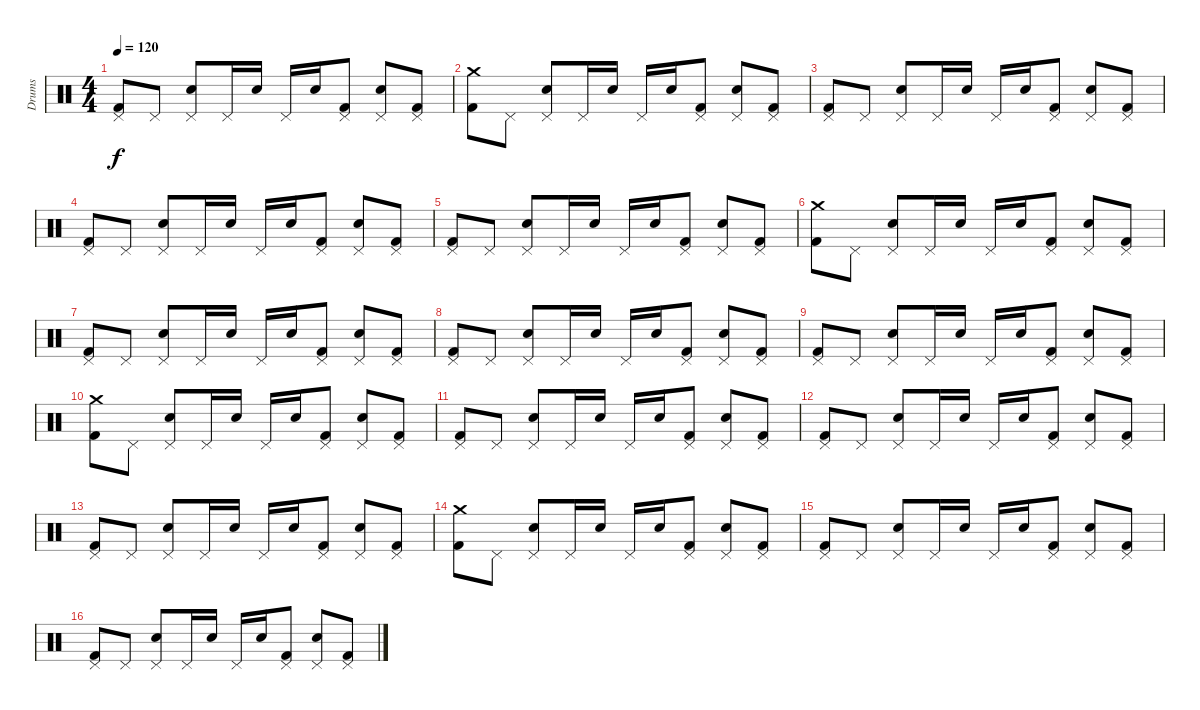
\track ("Drums" "Drums") {instrument percussion}
\staff {score}
\articulation defaults
\ts (4 4)
\tempo 120
\clef neutral
\ks c
("Pedal Hi-Hat (hit)" "Kick (hit) 2").8{dy f} "Pedal Hi-Hat (hit)".8 ("Pedal Hi-Hat (hit)" "Electric Snare (hit)").8 "Pedal Hi-Hat (hit)".16 "Electric Snare (hit)".16 "Pedal Hi-Hat (hit)".16 "Electric Snare (hit)".16 ("Pedal Hi-Hat (hit)" "Kick (hit) 2").8 ("Pedal Hi-Hat (hit)" "Electric Snare (hit)").8 ("Pedal Hi-Hat (hit)" "Kick (hit) 2").8 |
("Crash medium (hit)" "Kick (hit) 2").8 "Pedal Hi-Hat (hit)".8 ("Pedal Hi-Hat (hit)" "Electric Snare (hit)").8 "Pedal Hi-Hat (hit)".16 "Electric Snare (hit)".16 "Pedal Hi-Hat (hit)".16 "Electric Snare (hit)".16 ("Pedal Hi-Hat (hit)" "Kick (hit) 2").8 ("Pedal Hi-Hat (hit)" "Electric Snare (hit)").8 ("Pedal Hi-Hat (hit)" "Kick (hit) 2").8 |
("Pedal Hi-Hat (hit)" "Kick (hit) 2").8 "Pedal Hi-Hat (hit)".8 ("Pedal Hi-Hat (hit)" "Electric Snare (hit)").8 "Pedal Hi-Hat (hit)".16 "Electric Snare (hit)".16 "Pedal Hi-Hat (hit)".16 "Electric Snare (hit)".16 ("Pedal Hi-Hat (hit)" "Kick (hit) 2").8 ("Pedal Hi-Hat (hit)" "Electric Snare (hit)").8 ("Pedal Hi-Hat (hit)" "Kick (hit) 2").8 |
("Pedal Hi-Hat (hit)" "Kick (hit) 2").8 "Pedal Hi-Hat (hit)".8 ("Pedal Hi-Hat (hit)" "Electric Snare (hit)").8 "Pedal Hi-Hat (hit)".16 "Electric Snare (hit)".16 "Pedal Hi-Hat (hit)".16 "Electric Snare (hit)".16 ("Pedal Hi-Hat (hit)" "Kick (hit) 2").8 ("Pedal Hi-Hat (hit)" "Electric Snare (hit)").8 ("Pedal Hi-Hat (hit)" "Kick (hit) 2").8 |
("Pedal Hi-Hat (hit)" "Kick (hit) 2").8 "Pedal Hi-Hat (hit)".8 ("Pedal Hi-Hat (hit)" "Electric Snare (hit)").8 "Pedal Hi-Hat (hit)".16 "Electric Snare (hit)".16 "Pedal Hi-Hat (hit)".16 "Electric Snare (hit)".16 ("Pedal Hi-Hat (hit)" "Kick (hit) 2").8 ("Pedal Hi-Hat (hit)" "Electric Snare (hit)").8 ("Pedal Hi-Hat (hit)" "Kick (hit) 2").8 |
("Crash medium (hit)" "Kick (hit) 2").8 "Pedal Hi-Hat (hit)".8 ("Pedal Hi-Hat (hit)" "Electric Snare (hit)").8 "Pedal Hi-Hat (hit)".16 "Electric Snare (hit)".16 "Pedal Hi-Hat (hit)".16 "Electric Snare (hit)".16 ("Pedal Hi-Hat (hit)" "Kick (hit) 2").8 ("Pedal Hi-Hat (hit)" "Electric Snare (hit)").8 ("Pedal Hi-Hat (hit)" "Kick (hit) 2").8 |
("Pedal Hi-Hat (hit)" "Kick (hit) 2").8 "Pedal Hi-Hat (hit)".8 ("Pedal Hi-Hat (hit)" "Electric Snare (hit)").8 "Pedal Hi-Hat (hit)".16 "Electric Snare (hit)".16 "Pedal Hi-Hat (hit)".16 "Electric Snare (hit)".16 ("Pedal Hi-Hat (hit)" "Kick (hit) 2").8 ("Pedal Hi-Hat (hit)" "Electric Snare (hit)").8 ("Pedal Hi-Hat (hit)" "Kick (hit) 2").8 |
("Pedal Hi-Hat (hit)" "Kick (hit) 2").8 "Pedal Hi-Hat (hit)".8 ("Pedal Hi-Hat (hit)" "Electric Snare (hit)").8 "Pedal Hi-Hat (hit)".16 "Electric Snare (hit)".16 "Pedal Hi-Hat (hit)".16 "Electric Snare (hit)".16 ("Pedal Hi-Hat (hit)" "Kick (hit) 2").8 ("Pedal Hi-Hat (hit)" "Electric Snare (hit)").8 ("Pedal Hi-Hat (hit)" "Kick (hit) 2").8 |
("Pedal Hi-Hat (hit)" "Kick (hit) 2").8 "Pedal Hi-Hat (hit)".8 ("Pedal Hi-Hat (hit)" "Electric Snare (hit)").8 "Pedal Hi-Hat (hit)".16 "Electric Snare (hit)".16 "Pedal Hi-Hat (hit)".16 "Electric Snare (hit)".16 ("Pedal Hi-Hat (hit)" "Kick (hit) 2").8 ("Pedal Hi-Hat (hit)" "Electric Snare (hit)").8 ("Pedal Hi-Hat (hit)" "Kick (hit) 2").8 |
("Crash medium (hit)" "Kick (hit) 2").8 "Pedal Hi-Hat (hit)".8 ("Pedal Hi-Hat (hit)" "Electric Snare (hit)").8 "Pedal Hi-Hat (hit)".16 "Electric Snare (hit)".16 "Pedal Hi-Hat (hit)".16 "Electric Snare (hit)".16 ("Pedal Hi-Hat (hit)" "Kick (hit) 2").8 ("Pedal Hi-Hat (hit)" "Electric Snare (hit)").8 ("Pedal Hi-Hat (hit)" "Kick (hit) 2").8 |
("Pedal Hi-Hat (hit)" "Kick (hit) 2").8 "Pedal Hi-Hat (hit)".8 ("Pedal Hi-Hat (hit)" "Electric Snare (hit)").8 "Pedal Hi-Hat (hit)".16 "Electric Snare (hit)".16 "Pedal Hi-Hat (hit)".16 "Electric Snare (hit)".16 ("Pedal Hi-Hat (hit)" "Kick (hit) 2").8 ("Pedal Hi-Hat (hit)" "Electric Snare (hit)").8 ("Pedal Hi-Hat (hit)" "Kick (hit) 2").8 |
("Pedal Hi-Hat (hit)" "Kick (hit) 2").8 "Pedal Hi-Hat (hit)".8 ("Pedal Hi-Hat (hit)" "Electric Snare (hit)").8 "Pedal Hi-Hat (hit)".16 "Electric Snare (hit)".16 "Pedal Hi-Hat (hit)".16 "Electric Snare (hit)".16 ("Pedal Hi-Hat (hit)" "Kick (hit) 2").8 ("Pedal Hi-Hat (hit)" "Electric Snare (hit)").8 ("Pedal Hi-Hat (hit)" "Kick (hit) 2").8 |
("Pedal Hi-Hat (hit)" "Kick (hit) 2").8 "Pedal Hi-Hat (hit)".8 ("Pedal Hi-Hat (hit)" "Electric Snare (hit)").8 "Pedal Hi-Hat (hit)".16 "Electric Snare (hit)".16 "Pedal Hi-Hat (hit)".16 "Electric Snare (hit)".16 ("Pedal Hi-Hat (hit)" "Kick (hit) 2").8 ("Pedal Hi-Hat (hit)" "Electric Snare (hit)").8 ("Pedal Hi-Hat (hit)" "Kick (hit) 2").8 |
("Crash medium (hit)" "Kick (hit) 2").8 "Pedal Hi-Hat (hit)".8 ("Pedal Hi-Hat (hit)" "Electric Snare (hit)").8 "Pedal Hi-Hat (hit)".16 "Electric Snare (hit)".16 "Pedal Hi-Hat (hit)".16 "Electric Snare (hit)".16 ("Pedal Hi-Hat (hit)" "Kick (hit) 2").8 ("Pedal Hi-Hat (hit)" "Electric Snare (hit)").8 ("Pedal Hi-Hat (hit)" "Kick (hit) 2").8 |
("Pedal Hi-Hat (hit)" "Kick (hit) 2").8 "Pedal Hi-Hat (hit)".8 ("Pedal Hi-Hat (hit)" "Electric Snare (hit)").8 "Pedal Hi-Hat (hit)".16 "Electric Snare (hit)".16 "Pedal Hi-Hat (hit)".16 "Electric Snare (hit)".16 ("Pedal Hi-Hat (hit)" "Kick (hit) 2").8 ("Pedal Hi-Hat (hit)" "Electric Snare (hit)").8 ("Pedal Hi-Hat (hit)" "Kick (hit) 2").8 |
("Pedal Hi-Hat (hit)" "Kick (hit) 2").8 "Pedal Hi-Hat (hit)".8 ("Pedal Hi-Hat (hit)" "Electric Snare (hit)").8 "Pedal Hi-Hat (hit)".16 "Electric Snare (hit)".16 "Pedal Hi-Hat (hit)".16 "Electric Snare (hit)".16 ("Pedal Hi-Hat (hit)" "Kick (hit) 2").8 ("Pedal Hi-Hat (hit)" "Electric Snare (hit)").8 ("Pedal Hi-Hat (hit)" "Kick (hit) 2").8
